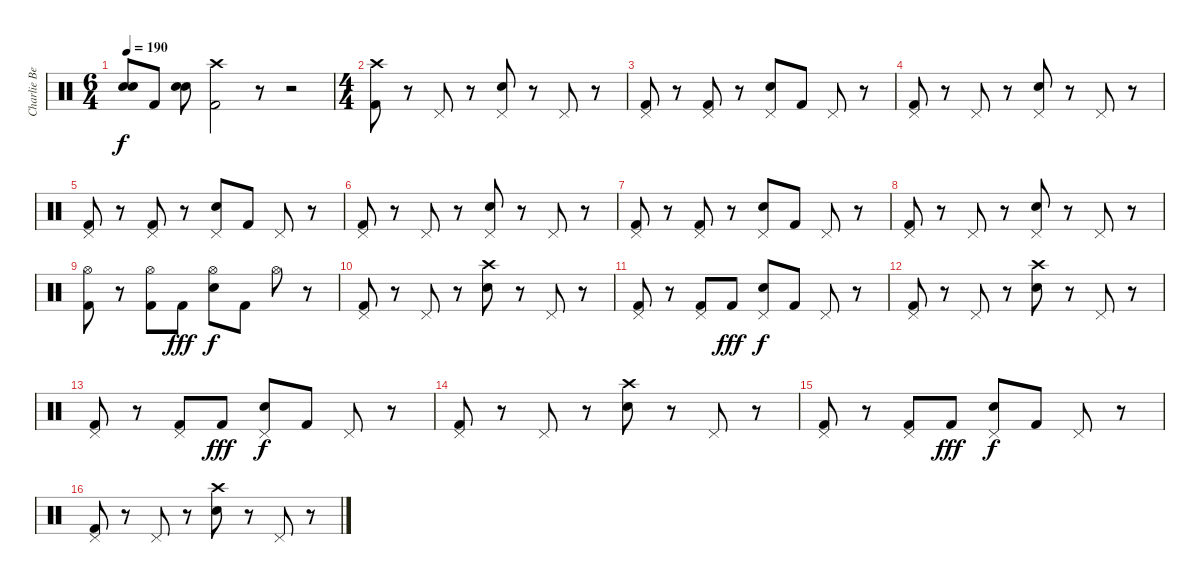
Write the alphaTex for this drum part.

\track ("Charlie Benante" "Charlie Be") {instrument percussion}
\staff {score}
\articulation defaults
\ts (6 4)
\tempo 190
\clef neutral
\ks c
("Snare (hit) 2" "Snare (hit) 2").8{bd 120 dy f} "Kick (hit) 2".8 ("Snare (hit) 2" "Snare (hit) 2").8{bd 120} ("Kick (hit) 2" "Crash high (hit)").2 r.8 r.2 |
\ts (4 4)
("Kick (hit) 2" "Crash high (hit)").8 r.8 "Pedal Hi-Hat (hit)".8 r.8 ("Snare (hit) 2" "Pedal Hi-Hat (hit)").8 r.8 "Pedal Hi-Hat (hit)".8 r.8 |
("Kick (hit) 2" "Pedal Hi-Hat (hit)").8 r.8 ("Kick (hit) 2" "Pedal Hi-Hat (hit)").8 r.8 ("Snare (hit) 2" "Pedal Hi-Hat (hit)").8 "Kick (hit) 2".8 "Pedal Hi-Hat (hit)".8 r.8 |
("Kick (hit) 2" "Pedal Hi-Hat (hit)").8 r.8 "Pedal Hi-Hat (hit)".8 r.8 ("Snare (hit) 2" "Pedal Hi-Hat (hit)").8 r.8 "Pedal Hi-Hat (hit)".8 r.8 |
("Kick (hit) 2" "Pedal Hi-Hat (hit)").8 r.8 ("Kick (hit) 2" "Pedal Hi-Hat (hit)").8 r.8 ("Snare (hit) 2" "Pedal Hi-Hat (hit)").8 "Kick (hit) 2".8 "Pedal Hi-Hat (hit)".8 r.8 |
("Kick (hit) 2" "Pedal Hi-Hat (hit)").8 r.8 "Pedal Hi-Hat (hit)".8 r.8 ("Snare (hit) 2" "Pedal Hi-Hat (hit)").8 r.8 "Pedal Hi-Hat (hit)".8 r.8 |
("Kick (hit) 2" "Pedal Hi-Hat (hit)").8 r.8 ("Kick (hit) 2" "Pedal Hi-Hat (hit)").8 r.8 ("Snare (hit) 2" "Pedal Hi-Hat (hit)").8 "Kick (hit) 2".8 "Pedal Hi-Hat (hit)".8 r.8 |
("Kick (hit) 2" "Pedal Hi-Hat (hit)").8 r.8 "Pedal Hi-Hat (hit)".8 r.8 ("Snare (hit) 2" "Pedal Hi-Hat (hit)").8 r.8 "Pedal Hi-Hat (hit)".8 r.8 |
("Kick (hit) 2" "Hi-Hat (open)").8 r.8 ("Kick (hit) 2" "Hi-Hat (open)").8 "Kick (hit) 2".8{dy fff} ("Snare (hit) 2" "Hi-Hat (open)").8{dy f} "Kick (hit) 2".8 "Hi-Hat (open)".8 r.8 |
("Kick (hit) 2" "Pedal Hi-Hat (hit)").8 r.8 "Pedal Hi-Hat (hit)".8 r.8 ("Snare (hit) 2" "Crash high (hit)").8 r.8 "Pedal Hi-Hat (hit)".8 r.8 |
("Kick (hit) 2" "Pedal Hi-Hat (hit)").8 r.8 ("Kick (hit) 2" "Pedal Hi-Hat (hit)").8 "Kick (hit) 2".8{dy fff} ("Snare (hit) 2" "Pedal Hi-Hat (hit)").8{dy f} "Kick (hit) 2".8 "Pedal Hi-Hat (hit)".8 r.8 |
("Kick (hit) 2" "Pedal Hi-Hat (hit)").8 r.8 "Pedal Hi-Hat (hit)".8 r.8 ("Snare (hit) 2" "Crash high (hit)").8 r.8 "Pedal Hi-Hat (hit)".8 r.8 |
("Kick (hit) 2" "Pedal Hi-Hat (hit)").8 r.8 ("Kick (hit) 2" "Pedal Hi-Hat (hit)").8 "Kick (hit) 2".8{dy fff} ("Snare (hit) 2" "Pedal Hi-Hat (hit)").8{dy f} "Kick (hit) 2".8 "Pedal Hi-Hat (hit)".8 r.8 |
("Kick (hit) 2" "Pedal Hi-Hat (hit)").8 r.8 "Pedal Hi-Hat (hit)".8 r.8 ("Snare (hit) 2" "Crash high (hit)").8 r.8 "Pedal Hi-Hat (hit)".8 r.8 |
("Kick (hit) 2" "Pedal Hi-Hat (hit)").8 r.8 ("Kick (hit) 2" "Pedal Hi-Hat (hit)").8 "Kick (hit) 2".8{dy fff} ("Snare (hit) 2" "Pedal Hi-Hat (hit)").8{dy f} "Kick (hit) 2".8 "Pedal Hi-Hat (hit)".8 r.8 |
("Kick (hit) 2" "Pedal Hi-Hat (hit)").8 r.8 "Pedal Hi-Hat (hit)".8 r.8 ("Snare (hit) 2" "Crash high (hit)").8 r.8 "Pedal Hi-Hat (hit)".8 r.8
